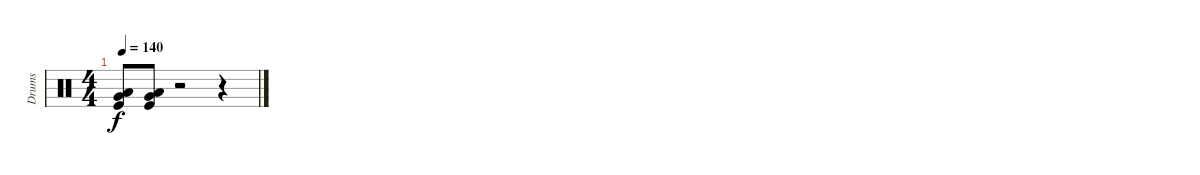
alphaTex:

\track ("Drums" "Drums") {instrument percussion}
\staff {score}
\articulation defaults
\ts (4 4)
\tempo 140
\clef neutral
\ks c
("Low Tom (hit)" "Very Low Tom (hit)" "Kick (hit)").8{dy f} ("Low Tom (hit)" "Very Low Tom (hit)" "Kick (hit)").8 r.2 r.4
